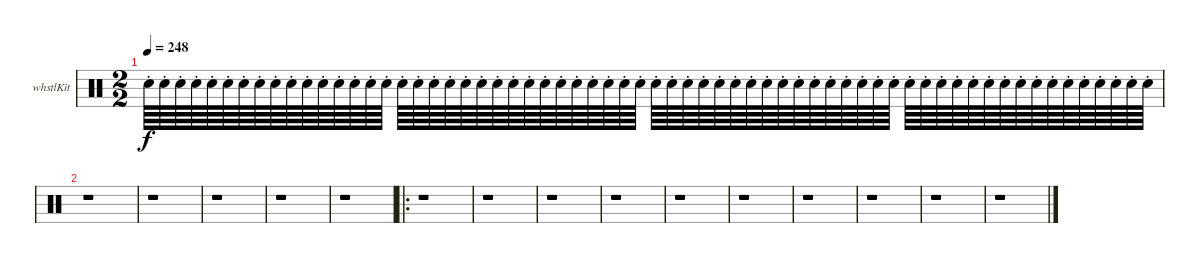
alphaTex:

\bracketExtendMode nobrackets
\firstSystemTrackNameOrientation horizontal
\otherSystemsTrackNameOrientation horizontal
\defaultBarNumberDisplay FirstOfSystem
\track ("Whistle" "whstlKit") {instrument percussion}
\staff {score}
\articulation defaults
\ts (2 2)
\tempo 248
\clef neutral
\ks c "Snare (hit) 2"{st}.64{dy f} "Snare (hit) 2"{st}.64 "Snare (hit) 2"{st}.64 "Snare (hit) 2"{st}.64 "Snare (hit) 2"{st}.64 "Snare (hit) 2"{st}.64 "Snare (hit) 2"{st}.64 "Snare (hit) 2"{st}.64 "Snare (hit) 2"{st}.64 "Snare (hit) 2"{st}.64 "Snare (hit) 2"{st}.64 "Snare (hit) 2"{st}.64 "Snare (hit) 2"{st}.64 "Snare (hit) 2"{st}.64 "Snare (hit) 2"{st}.64 "Snare (hit) 2"{st}.64 "Snare (hit) 2"{st}.64 "Snare (hit) 2"{st}.64 "Snare (hit) 2"{st}.64 "Snare (hit) 2"{st}.64 "Snare (hit) 2"{st}.64 "Snare (hit) 2"{st}.64 "Snare (hit) 2"{st}.64 "Snare (hit) 2"{st}.64 "Snare (hit) 2"{st}.64 "Snare (hit) 2"{st}.64 "Snare (hit) 2"{st}.64 "Snare (hit) 2"{st}.64 "Snare (hit) 2"{st}.64 "Snare (hit) 2"{st}.64 "Snare (hit) 2"{st}.64 "Snare (hit) 2"{st}.64 "Snare (hit) 2"{st}.64 "Snare (hit) 2"{st}.64 "Snare (hit) 2"{st}.64 "Snare (hit) 2"{st}.64 "Snare (hit) 2"{st}.64 "Snare (hit) 2"{st}.64 "Snare (hit) 2"{st}.64 "Snare (hit) 2"{st}.64 "Snare (hit) 2"{st}.64 "Snare (hit) 2"{st}.64 "Snare (hit) 2"{st}.64 "Snare (hit) 2"{st}.64 "Snare (hit) 2"{st}.64 "Snare (hit) 2"{st}.64 "Snare (hit) 2"{st}.64 "Snare (hit) 2"{st}.64 "Snare (hit) 2"{st}.64 "Snare (hit) 2"{st}.64 "Snare (hit) 2"{st}.64 "Snare (hit) 2"{st}.64 "Snare (hit) 2"{st}.64 "Snare (hit) 2"{st}.64 "Snare (hit) 2"{st}.64 "Snare (hit) 2"{st}.64 "Snare (hit) 2"{st}.64 "Snare (hit) 2"{st}.64 "Snare (hit) 2"{st}.64 "Snare (hit) 2"{st}.64 "Snare (hit) 2"{st}.64 "Snare (hit) 2"{st}.64 "Snare (hit) 2"{st}.64 "Snare (hit) 2"{st}.64
|
r.1 |
r.1 |
r.1 |
r.1 |
r.1 |
\ro
r.1 |
r.1 |
r.1 |
r.1 |
r.1 |
r.1 |
r.1 |
r.1 |
r.1 |
r.1
